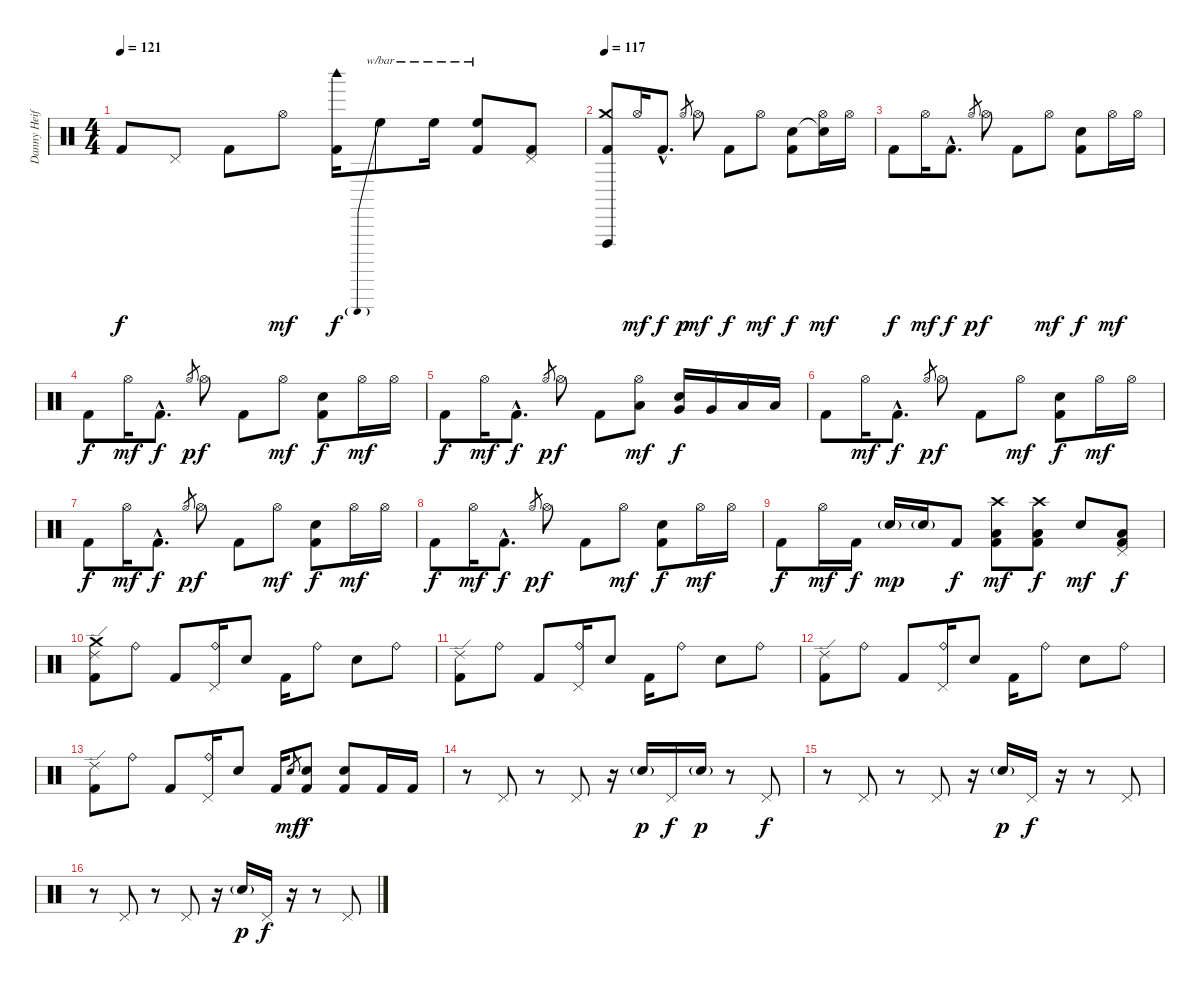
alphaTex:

\track ("Danny Heifetz - Drums" "Danny Heif") {instrument percussion}
\staff {score}
\articulation defaults
\ts (4 4)
\tempo 121
\clef neutral
\ks c "Kick (hit) 2".8{dy f} "Pedal Hi-Hat (hit)".8 "Kick (hit) 2".8 "Hi-Hat (open)".8{dy mf}
("Woodblock high (hit)" "Kick (hit) 2").16{dy f} "High Floor Tom (hit)".8{tbe (predive default 0 20 60 20)} "High Floor Tom (hit)".16{tbe (hold default 0 20 60 20)} ("High Floor Tom (hit)" "Kick (hit) 2").8{tbe (hold default 0 20 60 20)} ("Pedal Hi-Hat (hit)" "Kick (hit) 2").8 |
\tempo 117
("Crash medium (hit)" "Vibraslap (hit)" "Kick (hit) 2").8 "Hi-Hat (open)".16{dy mf} "Kick (hit) 2"{hac}.8{d dy f} "Hi-Hat (open)".8{gr dy p} "Hi-Hat (open)".8{dy mf} "Kick (hit) 2".8{dy f} "Hi-Hat (open)".8{dy mf} ("Electric Snare (hit)" "Kick (hit) 2").8{dy f} ("Snare (hit)"{t} "Hi-Hat (open)").16{dy mf} "Hi-Hat (open)".16 |
"Kick (hit) 2".8{dy f} "Hi-Hat (open)".16{dy mf} "Kick (hit) 2"{hac}.8{d dy f} "Hi-Hat (open)".8{gr dy p} "Hi-Hat (open)".8{dy f} "Kick (hit) 2".8 "Hi-Hat (open)".8{dy mf} ("Electric Snare (hit)" "Kick (hit) 2").8{dy f} "Hi-Hat (open)".16{dy mf} "Hi-Hat (open)".16 |
"Kick (hit) 2".8{dy f} "Hi-Hat (open)".16{dy mf} "Kick (hit) 2"{hac}.8{d dy f} "Hi-Hat (open)".8{gr dy p} "Hi-Hat (open)".8{dy f} "Kick (hit) 2".8 "Hi-Hat (open)".8{dy mf} ("Electric Snare (hit)" "Kick (hit) 2").8{dy f} "Hi-Hat (open)".16{dy mf} "Hi-Hat (open)".16 |
"Kick (hit) 2".8{dy f} "Hi-Hat (open)".16{dy mf} "Kick (hit) 2"{hac}.8{d dy f} "Hi-Hat (open)".8{gr dy p} "Hi-Hat (open)".8{dy f} "Kick (hit) 2".8 ("Hi-Hat (open)" "Low Tom (hit)").8{dy mf} ("Electric Snare (hit)" "Very Low Tom (hit)").16{dy f} "Very Low Tom (hit)".16 "Low Floor Tom (hit)".16 "Low Floor Tom (hit)".16 |
"Kick (hit) 2".8 "Hi-Hat (open)".16{dy mf} "Kick (hit) 2"{hac}.8{d dy f} "Hi-Hat (open)".8{gr dy p} "Hi-Hat (open)".8{dy f} "Kick (hit) 2".8 "Hi-Hat (open)".8{dy mf} ("Electric Snare (hit)" "Kick (hit) 2").8{dy f} "Hi-Hat (open)".16{dy mf} "Hi-Hat (open)".16 |
"Kick (hit) 2".8{dy f} "Hi-Hat (open)".16{dy mf} "Kick (hit) 2"{hac}.8{d dy f} "Hi-Hat (open)".8{gr dy p} "Hi-Hat (open)".8{dy f} "Kick (hit) 2".8 "Hi-Hat (open)".8{dy mf} ("Electric Snare (hit)" "Kick (hit) 2").8{dy f} "Hi-Hat (open)".16{dy mf} "Hi-Hat (open)".16 |
"Kick (hit) 2".8{dy f} "Hi-Hat (open)".16{dy mf} "Kick (hit) 2"{hac}.8{d dy f} "Hi-Hat (open)".8{gr dy p} "Hi-Hat (open)".8{dy f} "Kick (hit) 2".8 "Hi-Hat (open)".8{dy mf} ("Electric Snare (hit)" "Kick (hit) 2").8{dy f} "Hi-Hat (open)".16{dy mf} "Hi-Hat (open)".16 |
"Kick (hit) 2".8{dy f} "Hi-Hat (open)".16{dy mf} "Kick (hit) 2".16{dy f} "Electric Snare (hit)"{g}.16{dy mp} "Electric Snare (hit)"{g}.16 "Kick (hit) 2".8{dy f} ("Crash high (hit)" "Low Tom (hit)" "Kick (hit) 2").8{dy mf} ("Crash high (hit)" "Low Tom (hit)" "Kick (hit) 2").8{dy f} "Electric Snare (hit)".8{dy mf} ("Low Tom (hit)" "Pedal Hi-Hat (hit)" "Kick (hit) 2").8{dy f} |
("Crash medium (hit)" "Ride (edge) 2" "Kick (hit) 2").8 "Ride (bell)".8 "Kick (hit) 2".8 ("Ride (bell)" "Pedal Hi-Hat (hit)").16 "Electric Snare (hit)".8 "Kick (hit) 2".16 "Ride (bell)".8 "Electric Snare (hit)".8 "Ride (bell)".8 |
("Ride (edge) 2" "Kick (hit) 2").8 "Ride (bell)".8 "Kick (hit) 2".8 ("Ride (bell)" "Pedal Hi-Hat (hit)").16 "Electric Snare (hit)".8 "Kick (hit) 2".16 "Ride (bell)".8 "Electric Snare (hit)".8 "Ride (bell)".8 |
("Ride (edge) 2" "Kick (hit) 2").8 "Ride (bell)".8 "Kick (hit) 2".8 ("Ride (bell)" "Pedal Hi-Hat (hit)").16 "Electric Snare (hit)".8 "Kick (hit) 2".16 "Ride (bell)".8 "Electric Snare (hit)".8 "Ride (bell)".8 |
("Ride (edge) 2" "Kick (hit) 2").8 "Ride (bell)".8 "Kick (hit) 2".8 ("Ride (bell)" "Pedal Hi-Hat (hit)").16 "Electric Snare (hit)".8 "Kick (hit) 2".16 "Electric Snare (hit)".8{gr dy mf} ("Electric Snare (hit)" "Kick (hit) 2").8{dy f} ("Electric Snare (hit)" "Kick (hit) 2").8 "Kick (hit) 2".16 "Kick (hit) 2".16 |
r.8{volume 14} "Pedal Hi-Hat (hit)".8 r.8 "Pedal Hi-Hat (hit)".8 r.16 "Electric Snare (hit)"{g}.16{dy p} "Pedal Hi-Hat (hit)".16{dy f} "Electric Snare (hit)"{g}.16{dy p} r.8 "Pedal Hi-Hat (hit)".8{dy f} |
r.8 "Pedal Hi-Hat (hit)".8 r.8 "Pedal Hi-Hat (hit)".8 r.16 "Electric Snare (hit)"{g}.16{dy p} "Pedal Hi-Hat (hit)".16{dy f} r.16 r.8 "Pedal Hi-Hat (hit)".8 |
r.8 "Pedal Hi-Hat (hit)".8 r.8 "Pedal Hi-Hat (hit)".8 r.16 "Electric Snare (hit)"{g}.16{dy p} "Pedal Hi-Hat (hit)".16{dy f} r.16 r.8 "Pedal Hi-Hat (hit)".8
